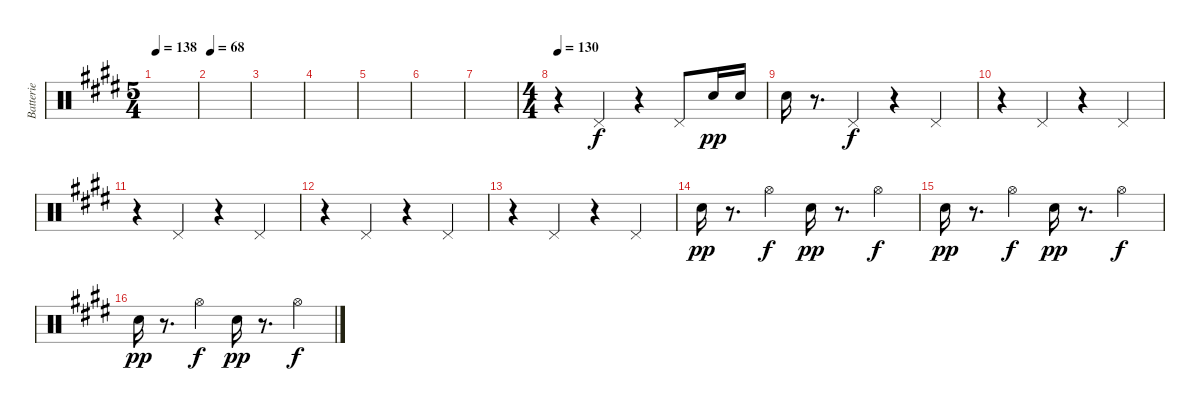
\track ("Batterie" "Batterie") {instrument percussion}
\staff {score}
\articulation defaults
\ts (5 4)
\tempo 138
\clef neutral
\ks e
|
\tempo 68
|
|
|
|
|
|
\ts (4 4)
\section ("" "")
\tempo 68
\tempo 130
r.4 "Pedal Hi-Hat (hit)".4 r.4 "Pedal Hi-Hat (hit)".8 "Snare (hit) 2".16{dy pp} "Snare (hit) 2".16 |
"Snare (hit) 2".16 r.8{d} "Pedal Hi-Hat (hit)".4{dy f} r.4 "Pedal Hi-Hat (hit)".4 |
r.4 "Pedal Hi-Hat (hit)".4 r.4 "Pedal Hi-Hat (hit)".4 |
r.4 "Pedal Hi-Hat (hit)".4 r.4 "Pedal Hi-Hat (hit)".4 |
r.4 "Pedal Hi-Hat (hit)".4 r.4 "Pedal Hi-Hat (hit)".4 |
r.4 "Pedal Hi-Hat (hit)".4 r.4 "Pedal Hi-Hat (hit)".4 |
"Snare (hit) 2".16{dy pp} r.8{d} "Hi-Hat (open)".4{dy f} "Snare (hit) 2".16{dy pp} r.8{d} "Hi-Hat (open)".4{dy f} |
"Snare (hit) 2".16{dy pp} r.8{d} "Hi-Hat (open)".4{dy f} "Snare (hit) 2".16{dy pp} r.8{d} "Hi-Hat (open)".4{dy f} |
"Snare (hit) 2".16{dy pp} r.8{d} "Hi-Hat (open)".4{dy f} "Snare (hit) 2".16{dy pp} r.8{d} "Hi-Hat (open)".4{dy f}
